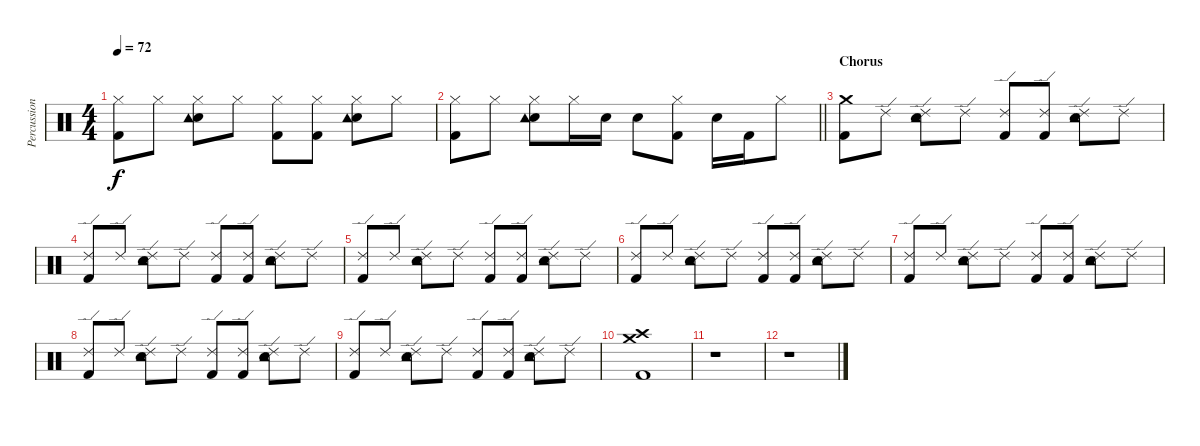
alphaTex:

\track ("Percussion" "Percussion") {instrument percussion}
\staff {score}
\articulation defaults
\ts (4 4)
\tempo 72
\clef neutral
\ks c
("Hi-Hat (closed)" "Kick (hit) 2").8{dy f} "Hi-Hat (closed)".8 ("Hi-Hat (closed)" "Snare (hit) 2" "Tambourine (hit)").8 "Hi-Hat (closed)".8 ("Hi-Hat (closed)" "Kick (hit) 2").8 ("Hi-Hat (closed)" "Kick (hit) 2").8 ("Hi-Hat (closed)" "Snare (hit) 2" "Tambourine (hit)").8 "Hi-Hat (closed)".8 |
\barLineRight lightlight
("Hi-Hat (closed)" "Kick (hit) 2").8 "Hi-Hat (closed)".8 ("Hi-Hat (closed)" "Snare (hit) 2" "Tambourine (hit)").8 "Hi-Hat (closed)".16 "Snare (hit) 2".16 "Snare (hit) 2".8 ("Hi-Hat (closed)" "Kick (hit) 2").8 "Snare (hit) 2".16 "Kick (hit) 2".16 "Hi-Hat (closed)".8 |
\section ("" "Chorus")
("Crash medium (hit)" "Kick (hit) 2").8 "Ride (edge) 2".8 ("Ride (edge) 2" "Snare (hit) 2" "Tambourine (hit)").8 "Ride (edge) 2".8 ("Ride (edge) 2" "Kick (hit) 2").8 ("Ride (edge) 2" "Kick (hit) 2").8 ("Ride (edge) 2" "Snare (hit) 2" "Tambourine (hit)").8 "Ride (edge) 2".8 |
("Ride (edge) 2" "Kick (hit) 2").8 "Ride (edge) 2".8 ("Ride (edge) 2" "Snare (hit) 2" "Tambourine (hit)").8 "Ride (edge) 2".8 ("Ride (edge) 2" "Kick (hit) 2").8 ("Ride (edge) 2" "Kick (hit) 2").8 ("Ride (edge) 2" "Snare (hit) 2" "Tambourine (hit)").8 "Ride (edge) 2".8 |
("Ride (edge) 2" "Kick (hit) 2").8 "Ride (edge) 2".8 ("Ride (edge) 2" "Snare (hit) 2" "Tambourine (hit)").8 "Ride (edge) 2".8 ("Ride (edge) 2" "Kick (hit) 2").8 ("Ride (edge) 2" "Kick (hit) 2").8 ("Ride (edge) 2" "Snare (hit) 2" "Tambourine (hit)").8 "Ride (edge) 2".8 |
("Ride (edge) 2" "Kick (hit) 2").8 "Ride (edge) 2".8 ("Ride (edge) 2" "Snare (hit) 2" "Tambourine (hit)").8 "Ride (edge) 2".8 ("Ride (edge) 2" "Kick (hit) 2").8 ("Ride (edge) 2" "Kick (hit) 2").8 ("Ride (edge) 2" "Snare (hit) 2" "Tambourine (hit)").8 "Ride (edge) 2".8 |
("Ride (edge) 2" "Kick (hit) 2").8 "Ride (edge) 2".8 ("Ride (edge) 2" "Snare (hit) 2" "Tambourine (hit)").8 "Ride (edge) 2".8 ("Ride (edge) 2" "Kick (hit) 2").8 ("Ride (edge) 2" "Kick (hit) 2").8 ("Ride (edge) 2" "Snare (hit) 2" "Tambourine (hit)").8 "Ride (edge) 2".8 |
("Ride (edge) 2" "Kick (hit) 2").8 "Ride (edge) 2".8 ("Ride (edge) 2" "Snare (hit) 2" "Tambourine (hit)").8 "Ride (edge) 2".8 ("Ride (edge) 2" "Kick (hit) 2").8 ("Ride (edge) 2" "Kick (hit) 2").8 ("Ride (edge) 2" "Snare (hit) 2" "Tambourine (hit)").8 "Ride (edge) 2".8 |
("Ride (edge) 2" "Kick (hit) 2").8 "Ride (edge) 2".8 ("Ride (edge) 2" "Snare (hit) 2" "Tambourine (hit)").8 "Ride (edge) 2".8 ("Ride (edge) 2" "Kick (hit) 2").8 ("Ride (edge) 2" "Kick (hit) 2").8 ("Ride (edge) 2" "Snare (hit) 2" "Tambourine (hit)").8 "Ride (edge) 2".8 |
("Crash high (hit)" "Crash medium (hit)" "Kick (hit) 2").1 |
r.1 |
r.1
